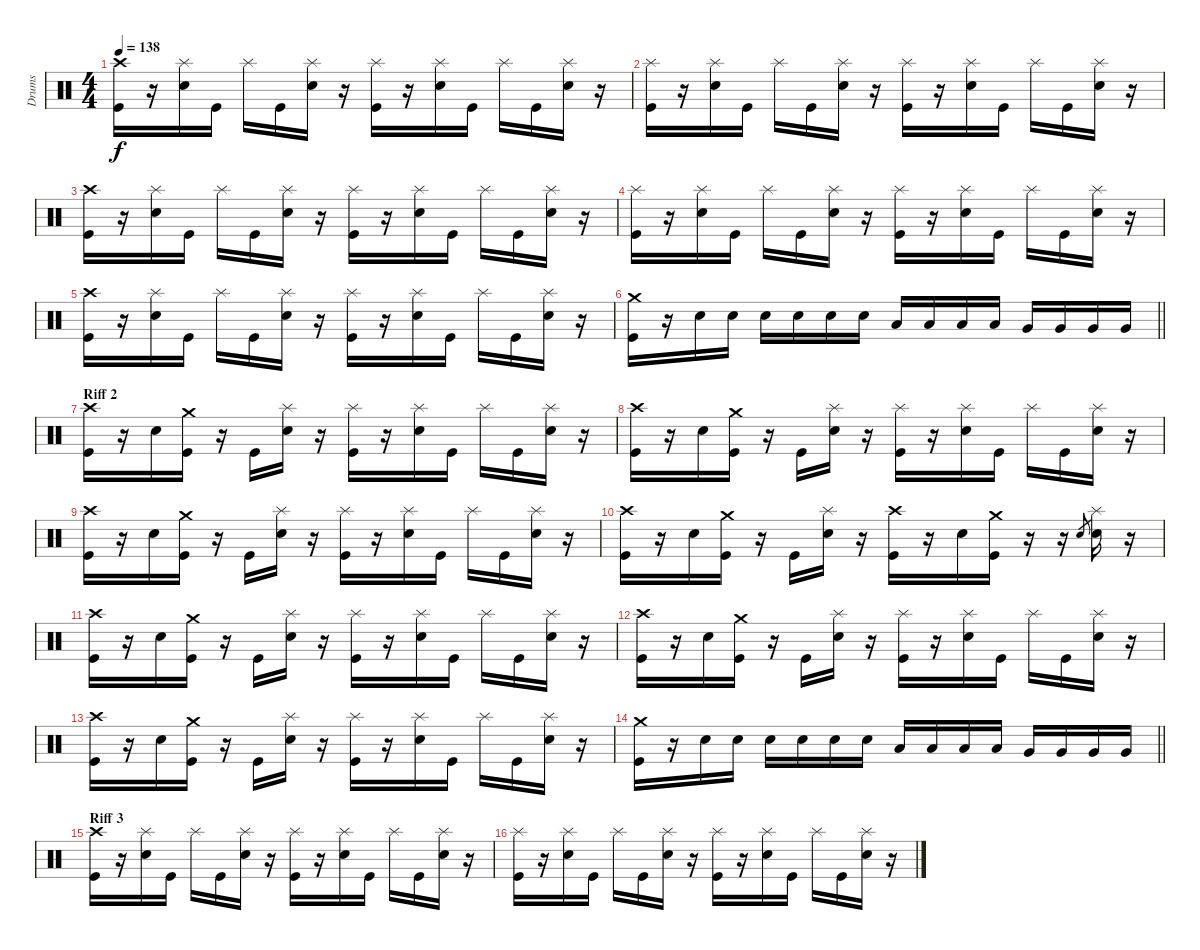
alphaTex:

\track ("Drums" "Drums") {instrument percussion}
\staff {score}
\articulation defaults
\ts (4 4)
\tempo 138
\clef neutral
\ks c
("Crash high (hit)" "Kick (hit)").16{dy f} r.16 ("Splash (hit)" "Electric Snare (hit)").16 "Kick (hit)".16 "Splash (hit)".16 "Kick (hit)".16 ("Splash (hit)" "Electric Snare (hit)").16 r.16 ("Splash (hit)" "Kick (hit)").16 r.16 ("Splash (hit)" "Electric Snare (hit)").16 "Kick (hit)".16 "Splash (hit)".16 "Kick (hit)".16 ("Splash (hit)" "Electric Snare (hit)").16 r.16 |
("Splash (hit)" "Kick (hit)").16 r.16 ("Splash (hit)" "Electric Snare (hit)").16 "Kick (hit)".16 "Splash (hit)".16 "Kick (hit)".16 ("Splash (hit)" "Electric Snare (hit)").16 r.16 ("Splash (hit)" "Kick (hit)").16 r.16 ("Splash (hit)" "Electric Snare (hit)").16 "Kick (hit)".16 "Splash (hit)".16 "Kick (hit)".16 ("Splash (hit)" "Electric Snare (hit)").16 r.16 |
("Crash high (hit)" "Kick (hit)").16 r.16 ("Splash (hit)" "Electric Snare (hit)").16 "Kick (hit)".16 "Splash (hit)".16 "Kick (hit)".16 ("Splash (hit)" "Electric Snare (hit)").16 r.16 ("Splash (hit)" "Kick (hit)").16 r.16 ("Splash (hit)" "Electric Snare (hit)").16 "Kick (hit)".16 "Splash (hit)".16 "Kick (hit)".16 ("Splash (hit)" "Electric Snare (hit)").16 r.16 |
("Splash (hit)" "Kick (hit)").16 r.16 ("Splash (hit)" "Electric Snare (hit)").16 "Kick (hit)".16 "Splash (hit)".16 "Kick (hit)".16 ("Splash (hit)" "Electric Snare (hit)").16 r.16 ("Splash (hit)" "Kick (hit)").16 r.16 ("Splash (hit)" "Electric Snare (hit)").16 "Kick (hit)".16 "Splash (hit)".16 "Kick (hit)".16 ("Splash (hit)" "Electric Snare (hit)").16 r.16 |
("Crash high (hit)" "Kick (hit)").16 r.16 ("Splash (hit)" "Electric Snare (hit)").16 "Kick (hit)".16 "Splash (hit)".16 "Kick (hit)".16 ("Splash (hit)" "Electric Snare (hit)").16 r.16 ("Splash (hit)" "Kick (hit)").16 r.16 ("Splash (hit)" "Electric Snare (hit)").16 "Kick (hit)".16 "Splash (hit)".16 "Kick (hit)".16 ("Splash (hit)" "Electric Snare (hit)").16 r.16 |
\barLineRight lightlight
("Crash medium (hit)" "Kick (hit)").16 r.16 "Electric Snare (hit)".16 "Electric Snare (hit)".16 "Electric Snare (hit)".16 "Electric Snare (hit)".16 "Electric Snare (hit)".16 "Electric Snare (hit)".16 "Low Tom (hit)".16 "Low Tom (hit)".16 "Low Tom (hit)".16 "Low Tom (hit)".16 "Very Low Tom (hit)".16 "Very Low Tom (hit)".16 "Very Low Tom (hit)".16 "Very Low Tom (hit)".16 |
\section ("" "Riff 2")
("Crash high (hit)" "Kick (hit)").16 r.16 "Electric Snare (hit)".16 ("Crash medium (hit)" "Kick (hit)").16 r.16 "Kick (hit)".16 ("Splash (hit)" "Electric Snare (hit)").16 r.16 ("Splash (hit)" "Kick (hit)").16 r.16 ("Splash (hit)" "Electric Snare (hit)").16 "Kick (hit)".16 "Splash (hit)".16 "Kick (hit)".16 ("Splash (hit)" "Electric Snare (hit)").16 r.16 |
("Crash high (hit)" "Kick (hit)").16 r.16 "Electric Snare (hit)".16 ("Crash medium (hit)" "Kick (hit)").16 r.16 "Kick (hit)".16 ("Splash (hit)" "Electric Snare (hit)").16 r.16 ("Splash (hit)" "Kick (hit)").16 r.16 ("Splash (hit)" "Electric Snare (hit)").16 "Kick (hit)".16 "Splash (hit)".16 "Kick (hit)".16 ("Splash (hit)" "Electric Snare (hit)").16 r.16 |
("Crash high (hit)" "Kick (hit)").16 r.16 "Electric Snare (hit)".16 ("Crash medium (hit)" "Kick (hit)").16 r.16 "Kick (hit)".16 ("Splash (hit)" "Electric Snare (hit)").16 r.16 ("Splash (hit)" "Kick (hit)").16 r.16 ("Splash (hit)" "Electric Snare (hit)").16 "Kick (hit)".16 "Splash (hit)".16 "Kick (hit)".16 ("Splash (hit)" "Electric Snare (hit)").16 r.16 |
("Crash high (hit)" "Kick (hit)").16 r.16 "Electric Snare (hit)".16 ("Crash medium (hit)" "Kick (hit)").16 r.16 "Kick (hit)".16 ("Splash (hit)" "Electric Snare (hit)").16 r.16 ("Crash high (hit)" "Kick (hit)").16 r.16 "Electric Snare (hit)".16 ("Crash medium (hit)" "Kick (hit)").16 r.16 r.16 "Electric Snare (hit)".8{gr} ("Splash (hit)" "Electric Snare (hit)").16 r.16 |
("Crash high (hit)" "Kick (hit)").16 r.16 "Electric Snare (hit)".16 ("Crash medium (hit)" "Kick (hit)").16 r.16 "Kick (hit)".16 ("Splash (hit)" "Electric Snare (hit)").16 r.16 ("Splash (hit)" "Kick (hit)").16 r.16 ("Splash (hit)" "Electric Snare (hit)").16 "Kick (hit)".16 "Splash (hit)".16 "Kick (hit)".16 ("Splash (hit)" "Electric Snare (hit)").16 r.16 |
("Crash high (hit)" "Kick (hit)").16 r.16 "Electric Snare (hit)".16 ("Crash medium (hit)" "Kick (hit)").16 r.16 "Kick (hit)".16 ("Splash (hit)" "Electric Snare (hit)").16 r.16 ("Splash (hit)" "Kick (hit)").16 r.16 ("Splash (hit)" "Electric Snare (hit)").16 "Kick (hit)".16 "Splash (hit)".16 "Kick (hit)".16 ("Splash (hit)" "Electric Snare (hit)").16 r.16 |
("Crash high (hit)" "Kick (hit)").16 r.16 "Electric Snare (hit)".16 ("Crash medium (hit)" "Kick (hit)").16 r.16 "Kick (hit)".16 ("Splash (hit)" "Electric Snare (hit)").16 r.16 ("Splash (hit)" "Kick (hit)").16 r.16 ("Splash (hit)" "Electric Snare (hit)").16 "Kick (hit)".16 "Splash (hit)".16 "Kick (hit)".16 ("Splash (hit)" "Electric Snare (hit)").16 r.16 |
\barLineRight lightlight
("Crash medium (hit)" "Kick (hit)").16 r.16 "Electric Snare (hit)".16 "Electric Snare (hit)".16 "Electric Snare (hit)".16 "Electric Snare (hit)".16 "Electric Snare (hit)".16 "Electric Snare (hit)".16 "Low Tom (hit)".16 "Low Tom (hit)".16 "Low Tom (hit)".16 "Low Tom (hit)".16 "Very Low Tom (hit)".16 "Very Low Tom (hit)".16 "Very Low Tom (hit)".16 "Very Low Tom (hit)".16 |
\section ("" "Riff 3")
("Crash high (hit)" "Kick (hit)").16 r.16 ("Splash (hit)" "Electric Snare (hit)").16 "Kick (hit)".16 "Splash (hit)".16 "Kick (hit)".16 ("Splash (hit)" "Electric Snare (hit)").16 r.16 ("Splash (hit)" "Kick (hit)").16 r.16 ("Splash (hit)" "Electric Snare (hit)").16 "Kick (hit)".16 "Splash (hit)".16 "Kick (hit)".16 ("Splash (hit)" "Electric Snare (hit)").16 r.16 |
("Splash (hit)" "Kick (hit)").16 r.16 ("Splash (hit)" "Electric Snare (hit)").16 "Kick (hit)".16 "Splash (hit)".16 "Kick (hit)".16 ("Splash (hit)" "Electric Snare (hit)").16 r.16 ("Splash (hit)" "Kick (hit)").16 r.16 ("Splash (hit)" "Electric Snare (hit)").16 "Kick (hit)".16 "Splash (hit)".16 "Kick (hit)".16 ("Splash (hit)" "Electric Snare (hit)").16 r.16
